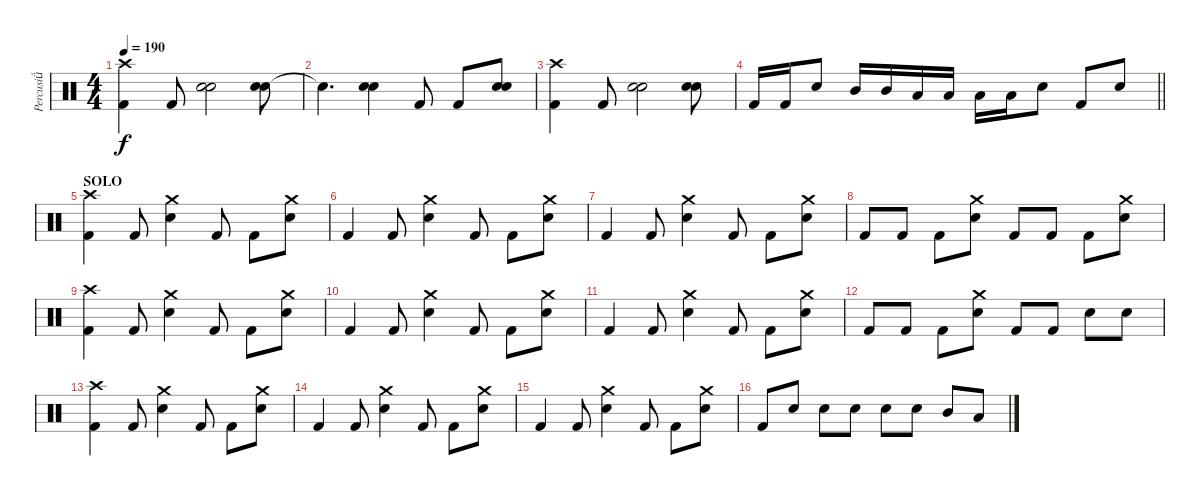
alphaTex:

\track ("Percusi" "Percusi") {instrument percussion}
\staff {score}
\articulation defaults
\ts (4 4)
\tempo 190
\clef neutral
\ks c
("Crash high (hit)" "Kick (hit) 2").4{dy f} "Kick (hit) 2".8 ("Electric Snare (hit)" "Electric Snare (hit)").2 ("Electric Snare (hit)" "Electric Snare (hit)").8 |
"Snare (hit)"{t}.4{d} ("Electric Snare (hit)" "Electric Snare (hit)").4 "Kick (hit) 2".8 "Kick (hit) 2".8 ("Electric Snare (hit)" "Electric Snare (hit)").8 |
("Crash high (hit)" "Kick (hit) 2").4 "Kick (hit) 2".8 ("Electric Snare (hit)" "Electric Snare (hit)").2 ("Electric Snare (hit)" "Electric Snare (hit)").8 |
\barLineRight lightlight "Kick (hit) 2".16 "Kick (hit) 2".16 "Electric Snare (hit)".8 "Mid Tom (hit)".16 "Mid Tom (hit)".16 "Low Tom (hit)".16 "Low Tom (hit)".16 "Low Floor Tom (hit)".16 "Low Floor Tom (hit)".16 "Electric Snare (hit)".8 "Kick (hit) 2".8 "Electric Snare (hit)".8
|
\section ("" "SOLO")
("Crash high (hit)" "Kick (hit) 2").4 "Kick (hit) 2".8 ("Crash medium (hit)" "Electric Snare (hit)").4 "Kick (hit) 2".8 "Kick (hit) 2".8 ("Crash medium (hit)" "Electric Snare (hit)").8 |
"Kick (hit) 2".4 "Kick (hit) 2".8 ("Crash medium (hit)" "Electric Snare (hit)").4 "Kick (hit) 2".8 "Kick (hit) 2".8 ("Crash medium (hit)" "Electric Snare (hit)").8 |
"Kick (hit) 2".4 "Kick (hit) 2".8 ("Crash medium (hit)" "Electric Snare (hit)").4 "Kick (hit) 2".8 "Kick (hit) 2".8 ("Crash medium (hit)" "Electric Snare (hit)").8 |
"Kick (hit) 2".8 "Kick (hit) 2".8 "Kick (hit) 2".8 ("Crash medium (hit)" "Electric Snare (hit)").8 "Kick (hit) 2".8 "Kick (hit) 2".8 "Kick (hit) 2".8 ("Crash medium (hit)" "Electric Snare (hit)").8 |
("Crash high (hit)" "Kick (hit) 2").4 "Kick (hit) 2".8 ("Crash medium (hit)" "Electric Snare (hit)").4 "Kick (hit) 2".8 "Kick (hit) 2".8 ("Crash medium (hit)" "Electric Snare (hit)").8 |
"Kick (hit) 2".4 "Kick (hit) 2".8 ("Crash medium (hit)" "Electric Snare (hit)").4 "Kick (hit) 2".8 "Kick (hit) 2".8 ("Crash medium (hit)" "Electric Snare (hit)").8 |
"Kick (hit) 2".4 "Kick (hit) 2".8 ("Crash medium (hit)" "Electric Snare (hit)").4 "Kick (hit) 2".8 "Kick (hit) 2".8 ("Crash medium (hit)" "Electric Snare (hit)").8 |
"Kick (hit) 2".8 "Kick (hit) 2".8 "Kick (hit) 2".8 ("Crash medium (hit)" "Electric Snare (hit)").8 "Kick (hit) 2".8 "Kick (hit) 2".8 "Electric Snare (hit)".8 "Electric Snare (hit)".8 |
("Crash high (hit)" "Kick (hit) 2").4 "Kick (hit) 2".8 ("Crash medium (hit)" "Electric Snare (hit)").4 "Kick (hit) 2".8 "Kick (hit) 2".8 ("Crash medium (hit)" "Electric Snare (hit)").8 |
"Kick (hit) 2".4 "Kick (hit) 2".8 ("Crash medium (hit)" "Electric Snare (hit)").4 "Kick (hit) 2".8 "Kick (hit) 2".8 ("Crash medium (hit)" "Electric Snare (hit)").8 |
"Kick (hit) 2".4 "Kick (hit) 2".8 ("Crash medium (hit)" "Electric Snare (hit)").4 "Kick (hit) 2".8 "Kick (hit) 2".8 ("Crash medium (hit)" "Electric Snare (hit)").8 |
"Kick (hit) 2".8 "Electric Snare (hit)".8 "Electric Snare (hit)".8 "Electric Snare (hit)".8 "Electric Snare (hit)".8 "Electric Snare (hit)".8 "Mid Tom (hit)".8 "Low Tom (hit)".8
